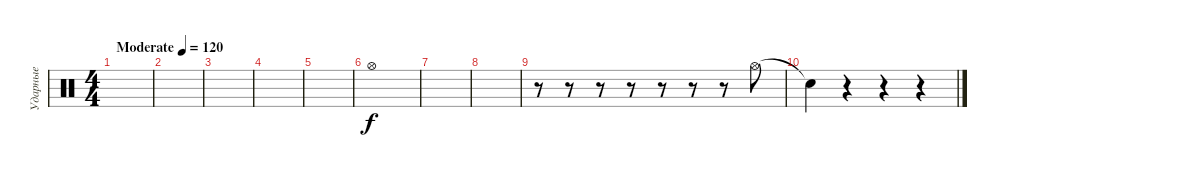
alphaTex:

\track ("Ударные" "Ударные") {instrument percussion}
\staff {score}
\articulation defaults
\ts (4 4)
\tempo (120 "Moderate")
\clef neutral
\ks c
|
|
|
|
|
"Hi-Hat (open)".1 |
|
|
r.8 r.8 r.8 r.8 r.8 r.8 r.8 "Hi-Hat (open)".8 |
"Snare (hit)"{t}.4 r.4 r.4 r.4
